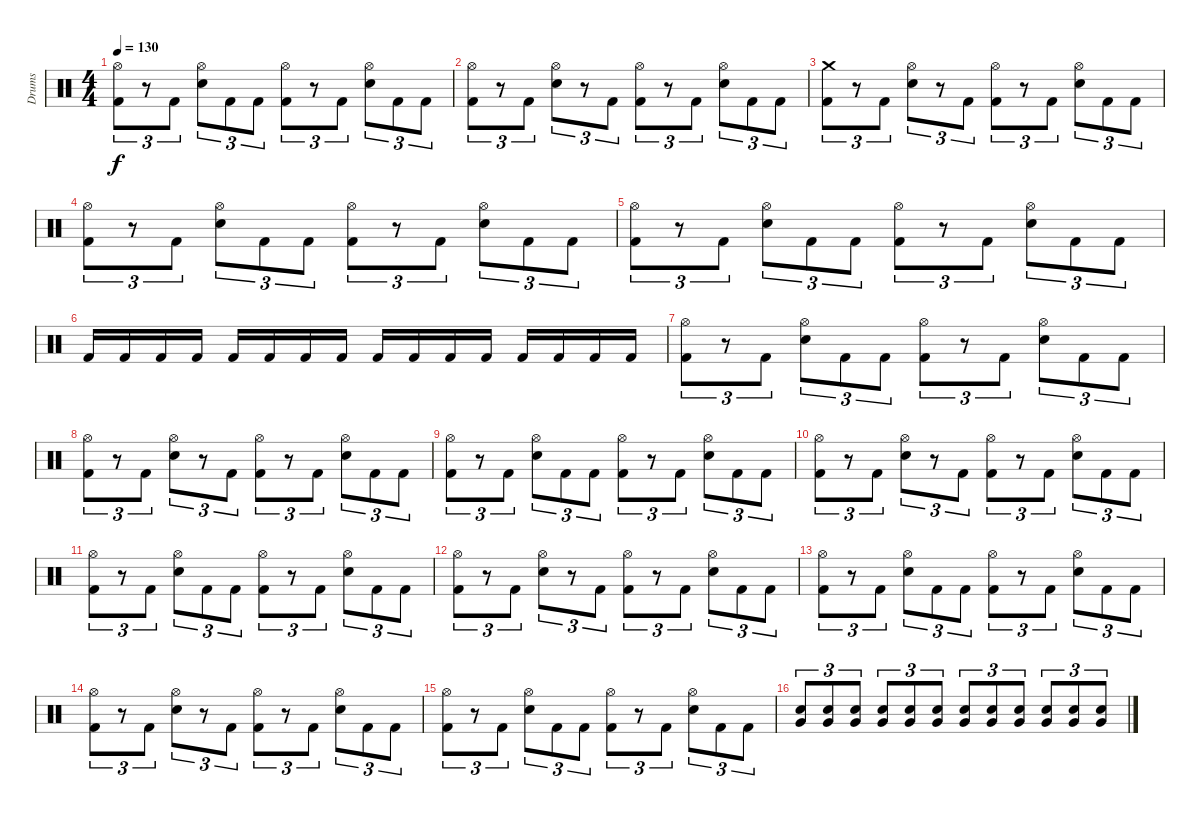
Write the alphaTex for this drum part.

\track ("Drums" "Drums") {instrument percussion}
\staff {score}
\articulation defaults
\ts (4 4)
\tempo 130
\clef neutral
\ks c
("Hi-Hat (open)" "Kick (hit) 2").8{tu (3 2) dy f} r.8{tu (3 2)} "Kick (hit) 2".8{tu (3 2)} ("Hi-Hat (open)" "Snare (hit) 2").8{tu (3 2)} "Kick (hit) 2".8{tu (3 2)} "Kick (hit) 2".8{tu (3 2)} ("Hi-Hat (open)" "Kick (hit) 2").8{tu (3 2)} r.8{tu (3 2)} "Kick (hit) 2".8{tu (3 2)} ("Hi-Hat (open)" "Snare (hit) 2").8{tu (3 2)} "Kick (hit) 2".8{tu (3 2)} "Kick (hit) 2".8{tu (3 2)} |
("Hi-Hat (open)" "Kick (hit) 2").8{tu (3 2)} r.8{tu (3 2)} "Kick (hit) 2".8{tu (3 2)} ("Hi-Hat (open)" "Snare (hit) 2").8{tu (3 2)} r.8{tu (3 2)} "Kick (hit) 2".8{tu (3 2)} ("Hi-Hat (open)" "Kick (hit) 2").8{tu (3 2)} r.8{tu (3 2)} "Kick (hit) 2".8{tu (3 2)} ("Hi-Hat (open)" "Snare (hit) 2").8{tu (3 2)} "Kick (hit) 2".8{tu (3 2)} "Kick (hit) 2".8{tu (3 2)} |
("Crash medium (hit)" "Kick (hit) 2").8{tu (3 2)} r.8{tu (3 2)} "Kick (hit) 2".8{tu (3 2)} ("Hi-Hat (open)" "Snare (hit) 2").8{tu (3 2)} r.8{tu (3 2)} "Kick (hit) 2".8{tu (3 2)} ("Hi-Hat (open)" "Kick (hit) 2").8{tu (3 2)} r.8{tu (3 2)} "Kick (hit) 2".8{tu (3 2)} ("Hi-Hat (open)" "Snare (hit) 2").8{tu (3 2)} "Kick (hit) 2".8{tu (3 2)} "Kick (hit) 2".8{tu (3 2)} |
("Hi-Hat (open)" "Kick (hit) 2").8{tu (3 2)} r.8{tu (3 2)} "Kick (hit) 2".8{tu (3 2)} ("Hi-Hat (open)" "Snare (hit) 2").8{tu (3 2)} "Kick (hit) 2".8{tu (3 2)} "Kick (hit) 2".8{tu (3 2)} ("Hi-Hat (open)" "Kick (hit) 2").8{tu (3 2)} r.8{tu (3 2)} "Kick (hit) 2".8{tu (3 2)} ("Hi-Hat (open)" "Snare (hit) 2").8{tu (3 2)} "Kick (hit) 2".8{tu (3 2)} "Kick (hit) 2".8{tu (3 2)} |
("Hi-Hat (open)" "Kick (hit) 2").8{tu (3 2)} r.8{tu (3 2)} "Kick (hit) 2".8{tu (3 2)} ("Hi-Hat (open)" "Snare (hit) 2").8{tu (3 2)} "Kick (hit) 2".8{tu (3 2)} "Kick (hit) 2".8{tu (3 2)} ("Hi-Hat (open)" "Kick (hit) 2").8{tu (3 2)} r.8{tu (3 2)} "Kick (hit) 2".8{tu (3 2)} ("Hi-Hat (open)" "Snare (hit) 2").8{tu (3 2)} "Kick (hit) 2".8{tu (3 2)} "Kick (hit) 2".8{tu (3 2)} |
"Kick (hit) 2".16 "Kick (hit) 2".16 "Kick (hit) 2".16 "Kick (hit) 2".16 "Kick (hit) 2".16 "Kick (hit) 2".16 "Kick (hit) 2".16 "Kick (hit) 2".16 "Kick (hit) 2".16 "Kick (hit) 2".16 "Kick (hit) 2".16 "Kick (hit) 2".16 "Kick (hit) 2".16 "Kick (hit) 2".16 "Kick (hit) 2".16 "Kick (hit) 2".16 |
("Hi-Hat (open)" "Kick (hit) 2").8{tu (3 2)} r.8{tu (3 2)} "Kick (hit) 2".8{tu (3 2)} ("Hi-Hat (open)" "Snare (hit) 2").8{tu (3 2)} "Kick (hit) 2".8{tu (3 2)} "Kick (hit) 2".8{tu (3 2)} ("Hi-Hat (open)" "Kick (hit) 2").8{tu (3 2)} r.8{tu (3 2)} "Kick (hit) 2".8{tu (3 2)} ("Hi-Hat (open)" "Snare (hit) 2").8{tu (3 2)} "Kick (hit) 2".8{tu (3 2)} "Kick (hit) 2".8{tu (3 2)} |
("Hi-Hat (open)" "Kick (hit) 2").8{tu (3 2)} r.8{tu (3 2)} "Kick (hit) 2".8{tu (3 2)} ("Hi-Hat (open)" "Snare (hit) 2").8{tu (3 2)} r.8{tu (3 2)} "Kick (hit) 2".8{tu (3 2)} ("Hi-Hat (open)" "Kick (hit) 2").8{tu (3 2)} r.8{tu (3 2)} "Kick (hit) 2".8{tu (3 2)} ("Hi-Hat (open)" "Snare (hit) 2").8{tu (3 2)} "Kick (hit) 2".8{tu (3 2)} "Kick (hit) 2".8{tu (3 2)} |
("Hi-Hat (open)" "Kick (hit) 2").8{tu (3 2)} r.8{tu (3 2)} "Kick (hit) 2".8{tu (3 2)} ("Hi-Hat (open)" "Snare (hit) 2").8{tu (3 2)} "Kick (hit) 2".8{tu (3 2)} "Kick (hit) 2".8{tu (3 2)} ("Hi-Hat (open)" "Kick (hit) 2").8{tu (3 2)} r.8{tu (3 2)} "Kick (hit) 2".8{tu (3 2)} ("Hi-Hat (open)" "Snare (hit) 2").8{tu (3 2)} "Kick (hit) 2".8{tu (3 2)} "Kick (hit) 2".8{tu (3 2)} |
("Hi-Hat (open)" "Kick (hit) 2").8{tu (3 2)} r.8{tu (3 2)} "Kick (hit) 2".8{tu (3 2)} ("Hi-Hat (open)" "Snare (hit) 2").8{tu (3 2)} r.8{tu (3 2)} "Kick (hit) 2".8{tu (3 2)} ("Hi-Hat (open)" "Kick (hit) 2").8{tu (3 2)} r.8{tu (3 2)} "Kick (hit) 2".8{tu (3 2)} ("Hi-Hat (open)" "Snare (hit) 2").8{tu (3 2)} "Kick (hit) 2".8{tu (3 2)} "Kick (hit) 2".8{tu (3 2)} |
("Hi-Hat (open)" "Kick (hit) 2").8{tu (3 2)} r.8{tu (3 2)} "Kick (hit) 2".8{tu (3 2)} ("Hi-Hat (open)" "Snare (hit) 2").8{tu (3 2)} "Kick (hit) 2".8{tu (3 2)} "Kick (hit) 2".8{tu (3 2)} ("Hi-Hat (open)" "Kick (hit) 2").8{tu (3 2)} r.8{tu (3 2)} "Kick (hit) 2".8{tu (3 2)} ("Hi-Hat (open)" "Snare (hit) 2").8{tu (3 2)} "Kick (hit) 2".8{tu (3 2)} "Kick (hit) 2".8{tu (3 2)} |
("Hi-Hat (open)" "Kick (hit) 2").8{tu (3 2)} r.8{tu (3 2)} "Kick (hit) 2".8{tu (3 2)} ("Hi-Hat (open)" "Snare (hit) 2").8{tu (3 2)} r.8{tu (3 2)} "Kick (hit) 2".8{tu (3 2)} ("Hi-Hat (open)" "Kick (hit) 2").8{tu (3 2)} r.8{tu (3 2)} "Kick (hit) 2".8{tu (3 2)} ("Hi-Hat (open)" "Snare (hit) 2").8{tu (3 2)} "Kick (hit) 2".8{tu (3 2)} "Kick (hit) 2".8{tu (3 2)} |
("Hi-Hat (open)" "Kick (hit) 2").8{tu (3 2)} r.8{tu (3 2)} "Kick (hit) 2".8{tu (3 2)} ("Hi-Hat (open)" "Snare (hit) 2").8{tu (3 2)} "Kick (hit) 2".8{tu (3 2)} "Kick (hit) 2".8{tu (3 2)} ("Hi-Hat (open)" "Kick (hit) 2").8{tu (3 2)} r.8{tu (3 2)} "Kick (hit) 2".8{tu (3 2)} ("Hi-Hat (open)" "Snare (hit) 2").8{tu (3 2)} "Kick (hit) 2".8{tu (3 2)} "Kick (hit) 2".8{tu (3 2)} |
("Hi-Hat (open)" "Kick (hit) 2").8{tu (3 2)} r.8{tu (3 2)} "Kick (hit) 2".8{tu (3 2)} ("Hi-Hat (open)" "Snare (hit) 2").8{tu (3 2)} r.8{tu (3 2)} "Kick (hit) 2".8{tu (3 2)} ("Hi-Hat (open)" "Kick (hit) 2").8{tu (3 2)} r.8{tu (3 2)} "Kick (hit) 2".8{tu (3 2)} ("Hi-Hat (open)" "Snare (hit) 2").8{tu (3 2)} "Kick (hit) 2".8{tu (3 2)} "Kick (hit) 2".8{tu (3 2)} |
("Hi-Hat (open)" "Kick (hit) 2").8{tu (3 2)} r.8{tu (3 2)} "Kick (hit) 2".8{tu (3 2)} ("Hi-Hat (open)" "Snare (hit) 2").8{tu (3 2)} "Kick (hit) 2".8{tu (3 2)} "Kick (hit) 2".8{tu (3 2)} ("Hi-Hat (open)" "Kick (hit) 2").8{tu (3 2)} r.8{tu (3 2)} "Kick (hit) 2".8{tu (3 2)} ("Hi-Hat (open)" "Snare (hit) 2").8{tu (3 2)} "Kick (hit) 2".8{tu (3 2)} "Kick (hit) 2".8{tu (3 2)} |
("Very Low Tom (hit)" "Snare (hit) 2").8{tu (3 2)} ("Very Low Tom (hit)" "Snare (hit) 2").8{tu (3 2)} ("Very Low Tom (hit)" "Snare (hit) 2").8{tu (3 2)} ("Very Low Tom (hit)" "Snare (hit) 2").8{tu (3 2)} ("Very Low Tom (hit)" "Snare (hit) 2").8{tu (3 2)} ("Very Low Tom (hit)" "Snare (hit) 2").8{tu (3 2)} ("Very Low Tom (hit)" "Snare (hit) 2").8{tu (3 2)} ("Very Low Tom (hit)" "Snare (hit) 2").8{tu (3 2)} ("Very Low Tom (hit)" "Snare (hit) 2").8{tu (3 2)} ("Very Low Tom (hit)" "Snare (hit) 2").8{tu (3 2)} ("Very Low Tom (hit)" "Snare (hit) 2").8{tu (3 2)} ("Very Low Tom (hit)" "Snare (hit) 2").8{tu (3 2)}
